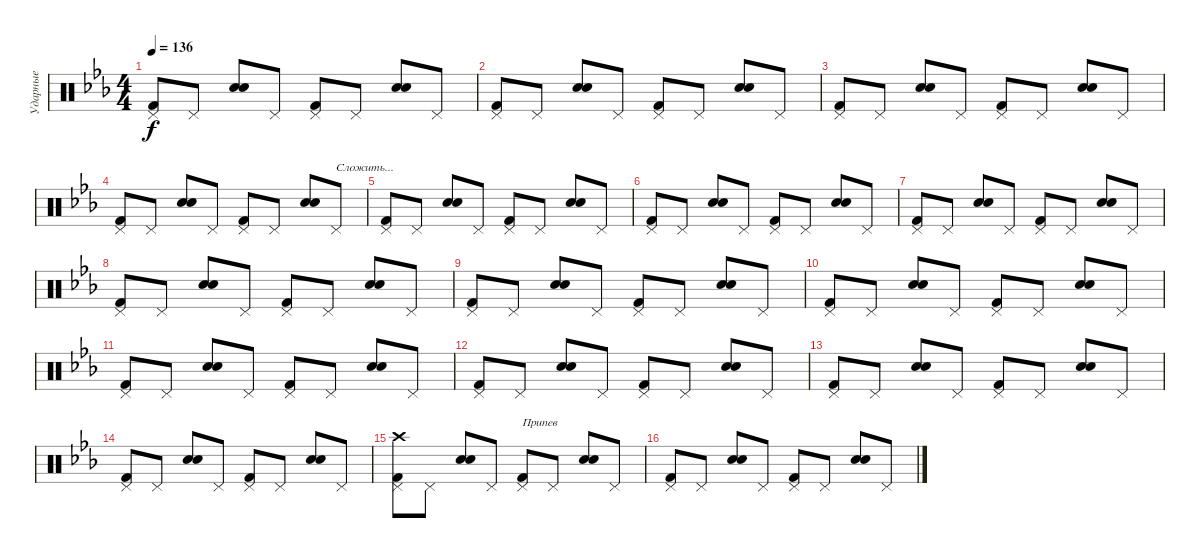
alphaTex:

\track ("Ударные" "Ударные") {instrument percussion}
\staff {score}
\articulation defaults
\ts (4 4)
\tempo 136
\clef neutral
\ks cminor
("Pedal Hi-Hat (hit)" "Kick (hit) 2").8{dy f} "Pedal Hi-Hat (hit)".8 ("Snare (hit) 2" "Snare (hit) 2").8 "Pedal Hi-Hat (hit)".8 ("Pedal Hi-Hat (hit)" "Kick (hit) 2").8 "Pedal Hi-Hat (hit)".8 ("Snare (hit) 2" "Snare (hit) 2").8 "Pedal Hi-Hat (hit)".8 |
("Pedal Hi-Hat (hit)" "Kick (hit) 2").8 "Pedal Hi-Hat (hit)".8 ("Snare (hit) 2" "Snare (hit) 2").8 "Pedal Hi-Hat (hit)".8 ("Pedal Hi-Hat (hit)" "Kick (hit) 2").8 "Pedal Hi-Hat (hit)".8 ("Snare (hit) 2" "Snare (hit) 2").8 "Pedal Hi-Hat (hit)".8 |
("Pedal Hi-Hat (hit)" "Kick (hit) 2").8 "Pedal Hi-Hat (hit)".8 ("Snare (hit) 2" "Snare (hit) 2").8 "Pedal Hi-Hat (hit)".8 ("Pedal Hi-Hat (hit)" "Kick (hit) 2").8 "Pedal Hi-Hat (hit)".8 ("Snare (hit) 2" "Snare (hit) 2").8 "Pedal Hi-Hat (hit)".8 |
("Pedal Hi-Hat (hit)" "Kick (hit) 2").8 "Pedal Hi-Hat (hit)".8 ("Snare (hit) 2" "Snare (hit) 2").8 "Pedal Hi-Hat (hit)".8 ("Pedal Hi-Hat (hit)" "Kick (hit) 2").8 "Pedal Hi-Hat (hit)".8 ("Snare (hit) 2" "Snare (hit) 2").8 "Pedal Hi-Hat (hit)".8{txt "Сложить..."} |
("Pedal Hi-Hat (hit)" "Kick (hit) 2").8 "Pedal Hi-Hat (hit)".8 ("Snare (hit) 2" "Snare (hit) 2").8 "Pedal Hi-Hat (hit)".8 ("Pedal Hi-Hat (hit)" "Kick (hit) 2").8 "Pedal Hi-Hat (hit)".8 ("Snare (hit) 2" "Snare (hit) 2").8 "Pedal Hi-Hat (hit)".8 |
("Pedal Hi-Hat (hit)" "Kick (hit) 2").8 "Pedal Hi-Hat (hit)".8 ("Snare (hit) 2" "Snare (hit) 2").8 "Pedal Hi-Hat (hit)".8 ("Pedal Hi-Hat (hit)" "Kick (hit) 2").8 "Pedal Hi-Hat (hit)".8 ("Snare (hit) 2" "Snare (hit) 2").8 "Pedal Hi-Hat (hit)".8 |
("Pedal Hi-Hat (hit)" "Kick (hit) 2").8 "Pedal Hi-Hat (hit)".8 ("Snare (hit) 2" "Snare (hit) 2").8 "Pedal Hi-Hat (hit)".8 ("Pedal Hi-Hat (hit)" "Kick (hit) 2").8 "Pedal Hi-Hat (hit)".8 ("Snare (hit) 2" "Snare (hit) 2").8 "Pedal Hi-Hat (hit)".8 |
("Pedal Hi-Hat (hit)" "Kick (hit) 2").8 "Pedal Hi-Hat (hit)".8 ("Snare (hit) 2" "Snare (hit) 2").8 "Pedal Hi-Hat (hit)".8 ("Pedal Hi-Hat (hit)" "Kick (hit) 2").8 "Pedal Hi-Hat (hit)".8 ("Snare (hit) 2" "Snare (hit) 2").8 "Pedal Hi-Hat (hit)".8 |
("Pedal Hi-Hat (hit)" "Kick (hit) 2").8 "Pedal Hi-Hat (hit)".8 ("Snare (hit) 2" "Snare (hit) 2").8 "Pedal Hi-Hat (hit)".8 ("Pedal Hi-Hat (hit)" "Kick (hit) 2").8 "Pedal Hi-Hat (hit)".8 ("Snare (hit) 2" "Snare (hit) 2").8 "Pedal Hi-Hat (hit)".8 |
("Pedal Hi-Hat (hit)" "Kick (hit) 2").8 "Pedal Hi-Hat (hit)".8 ("Snare (hit) 2" "Snare (hit) 2").8 "Pedal Hi-Hat (hit)".8 ("Pedal Hi-Hat (hit)" "Kick (hit) 2").8 "Pedal Hi-Hat (hit)".8 ("Snare (hit) 2" "Snare (hit) 2").8 "Pedal Hi-Hat (hit)".8 |
("Pedal Hi-Hat (hit)" "Kick (hit) 2").8 "Pedal Hi-Hat (hit)".8 ("Snare (hit) 2" "Snare (hit) 2").8 "Pedal Hi-Hat (hit)".8 ("Pedal Hi-Hat (hit)" "Kick (hit) 2").8 "Pedal Hi-Hat (hit)".8 ("Snare (hit) 2" "Snare (hit) 2").8 "Pedal Hi-Hat (hit)".8 |
("Pedal Hi-Hat (hit)" "Kick (hit) 2").8 "Pedal Hi-Hat (hit)".8 ("Snare (hit) 2" "Snare (hit) 2").8 "Pedal Hi-Hat (hit)".8 ("Pedal Hi-Hat (hit)" "Kick (hit) 2").8 "Pedal Hi-Hat (hit)".8 ("Snare (hit) 2" "Snare (hit) 2").8 "Pedal Hi-Hat (hit)".8 |
("Pedal Hi-Hat (hit)" "Kick (hit) 2").8 "Pedal Hi-Hat (hit)".8 ("Snare (hit) 2" "Snare (hit) 2").8 "Pedal Hi-Hat (hit)".8 ("Pedal Hi-Hat (hit)" "Kick (hit) 2").8 "Pedal Hi-Hat (hit)".8 ("Snare (hit) 2" "Snare (hit) 2").8 "Pedal Hi-Hat (hit)".8 |
("Pedal Hi-Hat (hit)" "Kick (hit) 2").8 "Pedal Hi-Hat (hit)".8 ("Snare (hit) 2" "Snare (hit) 2").8 "Pedal Hi-Hat (hit)".8 ("Pedal Hi-Hat (hit)" "Kick (hit) 2").8 "Pedal Hi-Hat (hit)".8 ("Snare (hit) 2" "Snare (hit) 2").8 "Pedal Hi-Hat (hit)".8 |
("Pedal Hi-Hat (hit)" "Kick (hit) 2" "Crash high (hit)").8 "Pedal Hi-Hat (hit)".8 ("Snare (hit) 2" "Snare (hit) 2").8 "Pedal Hi-Hat (hit)".8 ("Pedal Hi-Hat (hit)" "Kick (hit) 2").8{txt "Припев"} "Pedal Hi-Hat (hit)".8 ("Snare (hit) 2" "Snare (hit) 2").8 "Pedal Hi-Hat (hit)".8 |
("Pedal Hi-Hat (hit)" "Kick (hit) 2").8 "Pedal Hi-Hat (hit)".8 ("Snare (hit) 2" "Snare (hit) 2").8 "Pedal Hi-Hat (hit)".8 ("Pedal Hi-Hat (hit)" "Kick (hit) 2").8 "Pedal Hi-Hat (hit)".8 ("Snare (hit) 2" "Snare (hit) 2").8 "Pedal Hi-Hat (hit)".8
